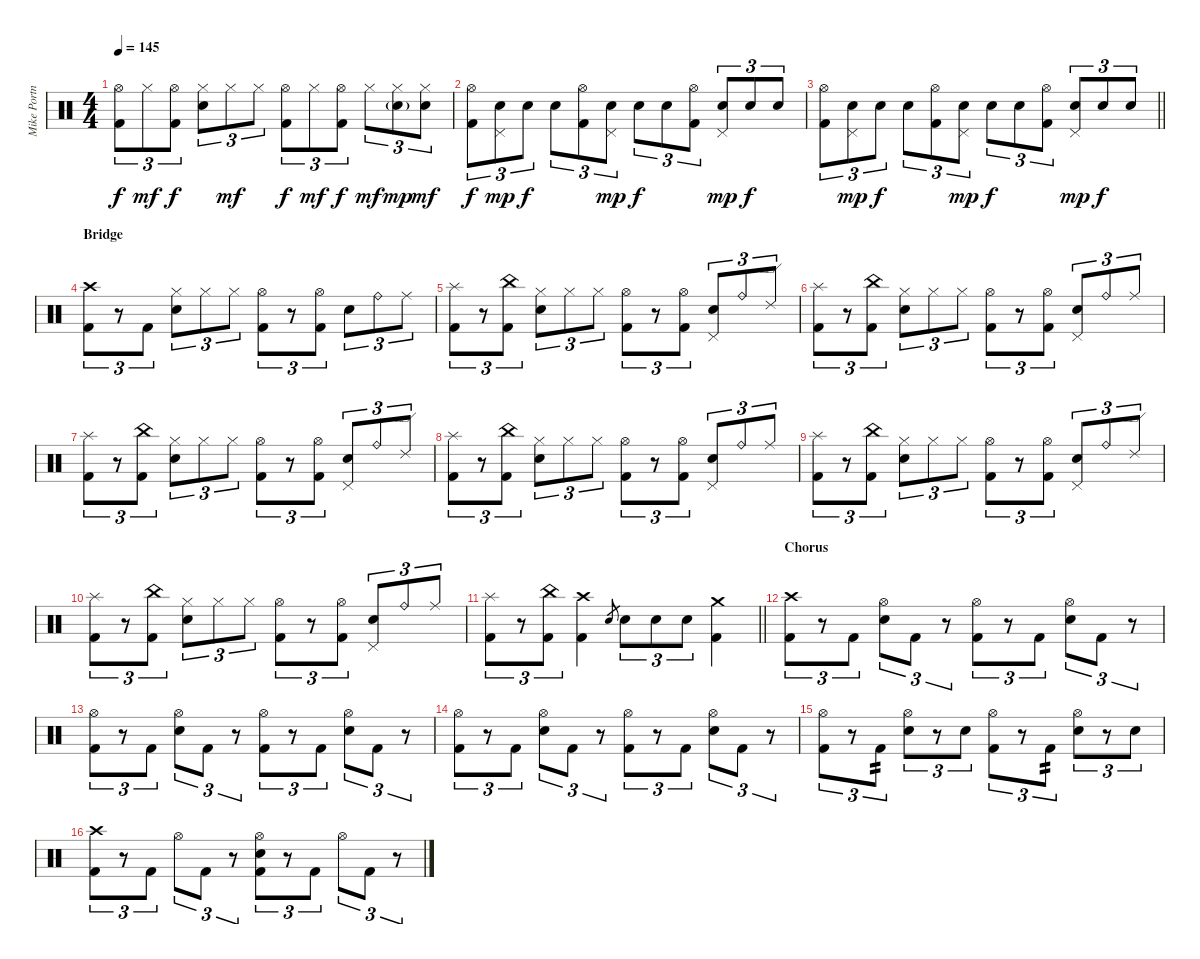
\track ("Mike Portnoy" "Mike Portn") {instrument percussion}
\staff {score}
\articulation defaults
\ts (4 4)
\tempo 145
\clef neutral
\ks c
("Hi-Hat (open)" "Kick (hit) 2").8{tu (3 2) dy f} "Hi-Hat (closed)".8{tu (3 2) dy mf} ("Hi-Hat (open)" "Kick (hit) 2").8{tu (3 2) dy f} ("Hi-Hat (closed)" "Electric Snare (hit)").8{tu (3 2)} "Hi-Hat (closed)".8{tu (3 2) dy mf} "Hi-Hat (closed)".8{tu (3 2)} ("Hi-Hat (open)" "Kick (hit) 2").8{tu (3 2) dy f} "Hi-Hat (closed)".8{tu (3 2) dy mf} ("Hi-Hat (open)" "Kick (hit) 2").8{tu (3 2) dy f} "Hi-Hat (closed)".8{tu (3 2) dy mf} ("Hi-Hat (closed)" "Electric Snare (hit)"{g}).8{tu (3 2) dy mp} ("Hi-Hat (closed)" "Electric Snare (hit)").8{tu (3 2) dy mf} |
("Hi-Hat (open)" "Kick (hit) 2").8{tu (3 2) dy f} ("Electric Snare (hit)" "Pedal Hi-Hat (hit)").8{tu (3 2) dy mp} "Electric Snare (hit)".8{tu (3 2) dy f} "Electric Snare (hit)".8{tu (3 2)} ("Hi-Hat (open)" "Kick (hit) 2").8{tu (3 2)} ("Electric Snare (hit)" "Pedal Hi-Hat (hit)").8{tu (3 2) dy mp} "Electric Snare (hit)".8{tu (3 2) dy f} "Electric Snare (hit)".8{tu (3 2)} ("Hi-Hat (open)" "Kick (hit) 2").8{tu (3 2)} ("Electric Snare (hit)" "Pedal Hi-Hat (hit)").8{tu (3 2) dy mp} "Electric Snare (hit)".8{tu (3 2) dy f} "Electric Snare (hit)".8{tu (3 2)} |
\barLineRight lightlight
("Hi-Hat (open)" "Kick (hit) 2").8{tu (3 2)} ("Electric Snare (hit)" "Pedal Hi-Hat (hit)").8{tu (3 2) dy mp} "Electric Snare (hit)".8{tu (3 2) dy f} "Electric Snare (hit)".8{tu (3 2)} ("Hi-Hat (open)" "Kick (hit) 2").8{tu (3 2)} ("Electric Snare (hit)" "Pedal Hi-Hat (hit)").8{tu (3 2) dy mp} "Electric Snare (hit)".8{tu (3 2) dy f} "Electric Snare (hit)".8{tu (3 2)} ("Hi-Hat (open)" "Kick (hit) 2").8{tu (3 2)} ("Electric Snare (hit)" "Pedal Hi-Hat (hit)").8{tu (3 2) dy mp} "Electric Snare (hit)".8{tu (3 2) dy f} "Electric Snare (hit)".8{tu (3 2)} |
\section ("" "Bridge")
("Crash high (hit)" "Kick (hit) 2").8{tu (3 2)} r.8{tu (3 2)} "Kick (hit) 2".8{tu (3 2)} ("Hi-Hat (closed)" "Electric Snare (hit)").8{tu (3 2)} "Hi-Hat (closed)".8{tu (3 2)} "Hi-Hat (closed)".8{tu (3 2)} ("Hi-Hat (open)" "Kick (hit) 2").8{tu (3 2)} r.8{tu (3 2)} ("Hi-Hat (open)" "Kick (hit) 2").8{tu (3 2)} "Electric Snare (hit)".8{tu (3 2)} "Ride (bell)".8{tu (3 2)} "Ride (middle)".8{tu (3 2)} |
("Splash (hit)" "Kick (hit) 2").8{tu (3 2)} r.8{tu (3 2)} ("China (hit)" "Kick (hit) 2").8{tu (3 2)} ("Hi-Hat (closed)" "Electric Snare (hit)").8{tu (3 2)} "Hi-Hat (closed)".8{tu (3 2)} "Hi-Hat (closed)".8{tu (3 2)} ("Hi-Hat (open)" "Kick (hit) 2").8{tu (3 2)} r.8{tu (3 2)} ("Hi-Hat (open)" "Kick (hit) 2").8{tu (3 2)} ("Electric Snare (hit)" "Pedal Hi-Hat (hit)").8{tu (3 2)} "Ride (bell)".8{tu (3 2)} "Ride (edge) 2".8{tu (3 2)} |
("Splash (hit)" "Kick (hit) 2").8{tu (3 2)} r.8{tu (3 2)} ("China (hit)" "Kick (hit) 2").8{tu (3 2)} ("Hi-Hat (closed)" "Electric Snare (hit)").8{tu (3 2)} "Hi-Hat (closed)".8{tu (3 2)} "Hi-Hat (closed)".8{tu (3 2)} ("Hi-Hat (open)" "Kick (hit) 2").8{tu (3 2)} r.8{tu (3 2)} ("Hi-Hat (open)" "Kick (hit) 2").8{tu (3 2)} ("Electric Snare (hit)" "Pedal Hi-Hat (hit)").8{tu (3 2)} "Ride (bell)".8{tu (3 2)} "Ride (middle)".8{tu (3 2)} |
("Splash (hit)" "Kick (hit) 2").8{tu (3 2)} r.8{tu (3 2)} ("China (hit)" "Kick (hit) 2").8{tu (3 2)} ("Hi-Hat (closed)" "Electric Snare (hit)").8{tu (3 2)} "Hi-Hat (closed)".8{tu (3 2)} "Hi-Hat (closed)".8{tu (3 2)} ("Hi-Hat (open)" "Kick (hit) 2").8{tu (3 2)} r.8{tu (3 2)} ("Hi-Hat (open)" "Kick (hit) 2").8{tu (3 2)} ("Electric Snare (hit)" "Pedal Hi-Hat (hit)").8{tu (3 2)} "Ride (bell)".8{tu (3 2)} "Ride (edge) 2".8{tu (3 2)} |
("Splash (hit)" "Kick (hit) 2").8{tu (3 2)} r.8{tu (3 2)} ("China (hit)" "Kick (hit) 2").8{tu (3 2)} ("Hi-Hat (closed)" "Electric Snare (hit)").8{tu (3 2)} "Hi-Hat (closed)".8{tu (3 2)} "Hi-Hat (closed)".8{tu (3 2)} ("Hi-Hat (open)" "Kick (hit) 2").8{tu (3 2)} r.8{tu (3 2)} ("Hi-Hat (open)" "Kick (hit) 2").8{tu (3 2)} ("Electric Snare (hit)" "Pedal Hi-Hat (hit)").8{tu (3 2)} "Ride (bell)".8{tu (3 2)} "Ride (middle)".8{tu (3 2)} |
("Splash (hit)" "Kick (hit) 2").8{tu (3 2)} r.8{tu (3 2)} ("China (hit)" "Kick (hit) 2").8{tu (3 2)} ("Hi-Hat (closed)" "Electric Snare (hit)").8{tu (3 2)} "Hi-Hat (closed)".8{tu (3 2)} "Hi-Hat (closed)".8{tu (3 2)} ("Hi-Hat (open)" "Kick (hit) 2").8{tu (3 2)} r.8{tu (3 2)} ("Hi-Hat (open)" "Kick (hit) 2").8{tu (3 2)} ("Electric Snare (hit)" "Pedal Hi-Hat (hit)").8{tu (3 2)} "Ride (bell)".8{tu (3 2)} "Ride (edge) 2".8{tu (3 2)} |
("Splash (hit)" "Kick (hit) 2").8{tu (3 2)} r.8{tu (3 2)} ("China (hit)" "Kick (hit) 2").8{tu (3 2)} ("Hi-Hat (closed)" "Electric Snare (hit)").8{tu (3 2)} "Hi-Hat (closed)".8{tu (3 2)} "Hi-Hat (closed)".8{tu (3 2)} ("Hi-Hat (open)" "Kick (hit) 2").8{tu (3 2)} r.8{tu (3 2)} ("Hi-Hat (open)" "Kick (hit) 2").8{tu (3 2)} ("Electric Snare (hit)" "Pedal Hi-Hat (hit)").8{tu (3 2)} "Ride (bell)".8{tu (3 2)} "Ride (middle)".8{tu (3 2)} |
\barLineRight lightlight
("Splash (hit)" "Kick (hit) 2").8{tu (3 2)} r.8{tu (3 2)} ("China (hit)" "Kick (hit) 2").8{tu (3 2)} ("Crash high (hit)" "Kick (hit) 2").4 "Electric Snare (hit)".8{gr} "Electric Snare (hit)".8{tu (3 2)} "Electric Snare (hit)".8{tu (3 2)} "Electric Snare (hit)".8{tu (3 2)} ("Crash medium (hit)" "Kick (hit) 2").4 |
\section ("" "Chorus")
("Crash high (hit)" "Kick (hit) 2").8{tu (3 2)} r.8{tu (3 2)} "Kick (hit) 2".8{tu (3 2)} ("Hi-Hat (open)" "Electric Snare (hit)").8{tu (3 2)} "Kick (hit) 2".8{tu (3 2)} r.8{tu (3 2)} ("Hi-Hat (open)" "Kick (hit) 2").8{tu (3 2)} r.8{tu (3 2)} "Kick (hit) 2".8{tu (3 2)} ("Hi-Hat (open)" "Electric Snare (hit)").8{tu (3 2)} "Kick (hit) 2".8{tu (3 2)} r.8{tu (3 2)} |
("Hi-Hat (open)" "Kick (hit) 2").8{tu (3 2)} r.8{tu (3 2)} "Kick (hit) 2".8{tu (3 2)} ("Hi-Hat (open)" "Electric Snare (hit)").8{tu (3 2)} "Kick (hit) 2".8{tu (3 2)} r.8{tu (3 2)} ("Hi-Hat (open)" "Kick (hit) 2").8{tu (3 2)} r.8{tu (3 2)} "Kick (hit) 2".8{tu (3 2)} ("Hi-Hat (open)" "Electric Snare (hit)").8{tu (3 2)} "Kick (hit) 2".8{tu (3 2)} r.8{tu (3 2)} |
("Hi-Hat (open)" "Kick (hit) 2").8{tu (3 2)} r.8{tu (3 2)} "Kick (hit) 2".8{tu (3 2)} ("Hi-Hat (open)" "Electric Snare (hit)").8{tu (3 2)} "Kick (hit) 2".8{tu (3 2)} r.8{tu (3 2)} ("Hi-Hat (open)" "Kick (hit) 2").8{tu (3 2)} r.8{tu (3 2)} "Kick (hit) 2".8{tu (3 2)} ("Hi-Hat (open)" "Electric Snare (hit)").8{tu (3 2)} "Kick (hit) 2".8{tu (3 2)} r.8{tu (3 2)} |
("Hi-Hat (open)" "Kick (hit) 2").8{tu (3 2)} r.8{tu (3 2)} "Kick (hit) 2".8{tu (3 2) tp 2} ("Hi-Hat (open)" "Electric Snare (hit)").8{tu (3 2)} r.8{tu (3 2)} "Electric Snare (hit)".8{tu (3 2)} ("Hi-Hat (open)" "Kick (hit) 2").8{tu (3 2)} r.8{tu (3 2)} "Kick (hit) 2".8{tu (3 2) tp 2} ("Hi-Hat (open)" "Electric Snare (hit)").8{tu (3 2)} r.8{tu (3 2)} "Electric Snare (hit)".8{tu (3 2)} |
("Crash high (hit)" "Kick (hit) 2").8{tu (3 2)} r.8{tu (3 2)} "Kick (hit) 2".8{tu (3 2)} "Hi-Hat (open)".8{tu (3 2)} "Kick (hit) 2".8{tu (3 2)} r.8{tu (3 2)} ("Hi-Hat (open)" "Electric Snare (hit)" "Kick (hit) 2").8{tu (3 2)} r.8{tu (3 2)} "Kick (hit) 2".8{tu (3 2)} "Hi-Hat (open)".8{tu (3 2)} "Kick (hit) 2".8{tu (3 2)} r.8{tu (3 2)}
